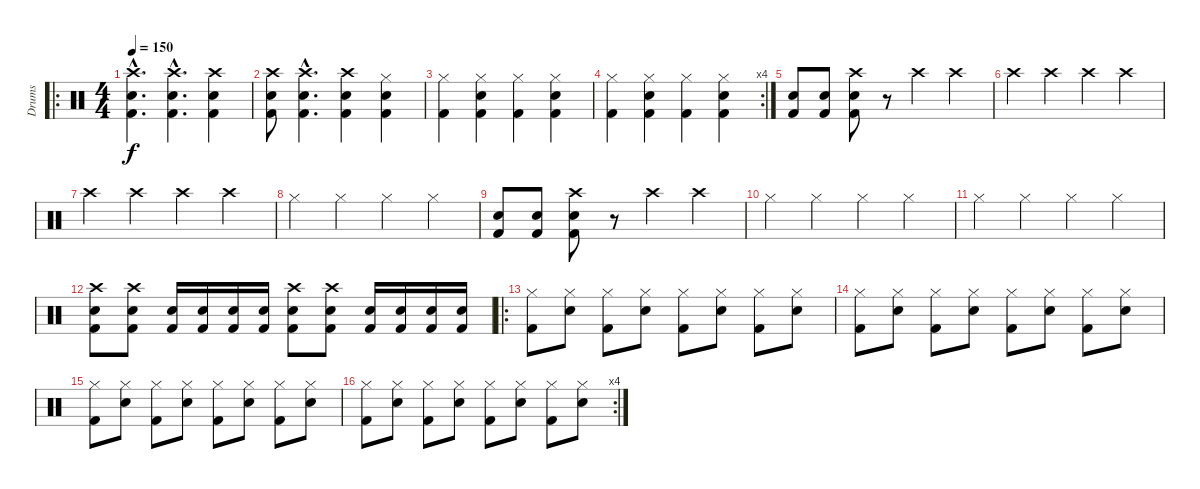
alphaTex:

\track ("Drums" "Drums") {instrument percussion}
\staff {score}
\articulation defaults
\ro
\ts (4 4)
\tempo 150
\clef neutral
\ks c
("Crash high (hit)"{hac} "Kick (hit) 2"{hac} "Electric Snare (hit)"{hac}).4{d dy f} ("Crash high (hit)"{hac} "Kick (hit) 2"{hac} "Electric Snare (hit)"{hac}).4{d} ("Crash high (hit)" "Kick (hit) 2" "Electric Snare (hit)").4 |
("Crash high (hit)" "Kick (hit) 2" "Electric Snare (hit)").8 ("Crash high (hit)"{hac} "Kick (hit) 2"{hac} "Electric Snare (hit)"{hac}).4{d} ("Crash high (hit)" "Kick (hit) 2" "Electric Snare (hit)").4 ("Hi-Hat (closed)" "Kick (hit) 2" "Electric Snare (hit)").4 |
("Hi-Hat (closed)" "Kick (hit) 2").4 ("Hi-Hat (closed)" "Electric Snare (hit)" "Kick (hit) 2").4 ("Hi-Hat (closed)" "Kick (hit) 2").4 ("Hi-Hat (closed)" "Electric Snare (hit)" "Kick (hit) 2").4 |
\rc 4
("Hi-Hat (closed)" "Kick (hit) 2").4 ("Hi-Hat (closed)" "Electric Snare (hit)" "Kick (hit) 2").4 ("Hi-Hat (closed)" "Kick (hit) 2").4 ("Hi-Hat (closed)" "Electric Snare (hit)" "Kick (hit) 2").4 |
("Electric Snare (hit)" "Kick (hit) 2").8 ("Electric Snare (hit)" "Kick (hit) 2").8 ("Crash high (hit)" "Electric Snare (hit)" "Kick (hit) 2").8 r.8 "Crash high (hit)".4 "Crash high (hit)".4 |
"Crash high (hit)".4 "Crash high (hit)".4 "Crash high (hit)".4 "Crash high (hit)".4 |
"Crash high (hit)".4 "Crash high (hit)".4 "Crash high (hit)".4 "Crash high (hit)".4 |
"Hi-Hat (closed)".4 "Hi-Hat (closed)".4 "Hi-Hat (closed)".4 "Hi-Hat (closed)".4 |
("Electric Snare (hit)" "Kick (hit) 2").8 ("Electric Snare (hit)" "Kick (hit) 2").8 ("Crash high (hit)" "Electric Snare (hit)" "Kick (hit) 2").8 r.8 "Crash high (hit)".4 "Crash high (hit)".4 |
"Hi-Hat (closed)".4 "Hi-Hat (closed)".4 "Hi-Hat (closed)".4 "Hi-Hat (closed)".4 |
"Hi-Hat (closed)".4 "Hi-Hat (closed)".4 "Hi-Hat (closed)".4 "Hi-Hat (closed)".4 |
("Kick (hit) 2" "Electric Snare (hit)" "Crash high (hit)").8 ("Kick (hit) 2" "Electric Snare (hit)" "Crash high (hit)").8 ("Kick (hit) 2" "Electric Snare (hit)").16 ("Kick (hit) 2" "Electric Snare (hit)").16 ("Kick (hit) 2" "Electric Snare (hit)").16 ("Kick (hit) 2" "Electric Snare (hit)").16 ("Kick (hit) 2" "Electric Snare (hit)" "Crash high (hit)").8 ("Kick (hit) 2" "Electric Snare (hit)" "Crash high (hit)").8 ("Kick (hit) 2" "Electric Snare (hit)").16 ("Kick (hit) 2" "Electric Snare (hit)").16 ("Kick (hit) 2" "Electric Snare (hit)").16 ("Kick (hit) 2" "Electric Snare (hit)").16 |
\ro
("Hi-Hat (closed)" "Kick (hit) 2").8 ("Hi-Hat (closed)" "Electric Snare (hit)").8 ("Hi-Hat (closed)" "Kick (hit) 2").8 ("Hi-Hat (closed)" "Electric Snare (hit)").8 ("Hi-Hat (closed)" "Kick (hit) 2").8 ("Hi-Hat (closed)" "Electric Snare (hit)").8 ("Hi-Hat (closed)" "Kick (hit) 2").8 ("Hi-Hat (closed)" "Electric Snare (hit)").8 |
("Hi-Hat (closed)" "Kick (hit) 2").8 ("Hi-Hat (closed)" "Electric Snare (hit)").8 ("Hi-Hat (closed)" "Kick (hit) 2").8 ("Hi-Hat (closed)" "Electric Snare (hit)").8 ("Hi-Hat (closed)" "Kick (hit) 2").8 ("Hi-Hat (closed)" "Electric Snare (hit)").8 ("Hi-Hat (closed)" "Kick (hit) 2").8 ("Hi-Hat (closed)" "Electric Snare (hit)").8 |
("Hi-Hat (closed)" "Kick (hit) 2").8 ("Hi-Hat (closed)" "Electric Snare (hit)").8 ("Hi-Hat (closed)" "Kick (hit) 2").8 ("Hi-Hat (closed)" "Electric Snare (hit)").8 ("Hi-Hat (closed)" "Kick (hit) 2").8 ("Hi-Hat (closed)" "Electric Snare (hit)").8 ("Hi-Hat (closed)" "Kick (hit) 2").8 ("Hi-Hat (closed)" "Electric Snare (hit)").8 |
\rc 4
("Hi-Hat (closed)" "Kick (hit) 2").8 ("Hi-Hat (closed)" "Electric Snare (hit)").8 ("Hi-Hat (closed)" "Kick (hit) 2").8 ("Hi-Hat (closed)" "Electric Snare (hit)").8 ("Hi-Hat (closed)" "Kick (hit) 2").8 ("Hi-Hat (closed)" "Electric Snare (hit)").8 ("Hi-Hat (closed)" "Kick (hit) 2").8 ("Hi-Hat (closed)" "Electric Snare (hit)").8
